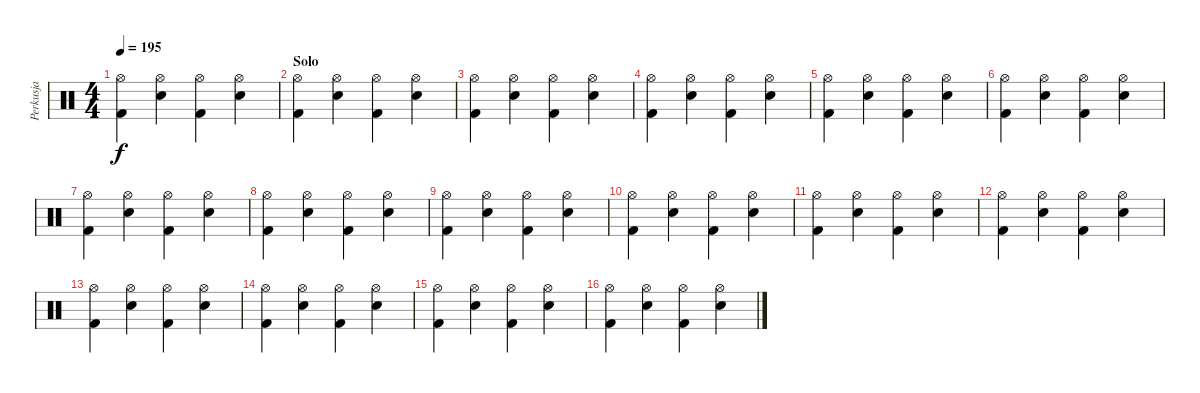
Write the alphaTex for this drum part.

\track ("Perkusja" "Perkusja") {instrument percussion}
\staff {score}
\articulation defaults
\ts (4 4)
\tempo 195
\clef neutral
\ks c
("Hi-Hat (open)" "Kick (hit) 2").4{dy f} ("Hi-Hat (open)" "Snare (hit) 2").4 ("Hi-Hat (open)" "Kick (hit) 2").4 ("Hi-Hat (open)" "Snare (hit) 2").4 |
\section ("" "Solo")
("Hi-Hat (open)" "Kick (hit) 2").4 ("Hi-Hat (open)" "Snare (hit) 2").4 ("Hi-Hat (open)" "Kick (hit) 2").4 ("Hi-Hat (open)" "Snare (hit) 2").4 |
("Hi-Hat (open)" "Kick (hit) 2").4 ("Hi-Hat (open)" "Snare (hit) 2").4 ("Hi-Hat (open)" "Kick (hit) 2").4 ("Hi-Hat (open)" "Snare (hit) 2").4 |
("Hi-Hat (open)" "Kick (hit) 2").4 ("Hi-Hat (open)" "Snare (hit) 2").4 ("Hi-Hat (open)" "Kick (hit) 2").4 ("Hi-Hat (open)" "Snare (hit) 2").4 |
("Hi-Hat (open)" "Kick (hit) 2").4 ("Hi-Hat (open)" "Snare (hit) 2").4 ("Hi-Hat (open)" "Kick (hit) 2").4 ("Hi-Hat (open)" "Snare (hit) 2").4 |
("Hi-Hat (open)" "Kick (hit) 2").4 ("Hi-Hat (open)" "Snare (hit) 2").4 ("Hi-Hat (open)" "Kick (hit) 2").4 ("Hi-Hat (open)" "Snare (hit) 2").4 |
("Hi-Hat (open)" "Kick (hit) 2").4 ("Hi-Hat (open)" "Snare (hit) 2").4 ("Hi-Hat (open)" "Kick (hit) 2").4 ("Hi-Hat (open)" "Snare (hit) 2").4 |
("Hi-Hat (open)" "Kick (hit) 2").4 ("Hi-Hat (open)" "Snare (hit) 2").4 ("Hi-Hat (open)" "Kick (hit) 2").4 ("Hi-Hat (open)" "Snare (hit) 2").4 |
("Hi-Hat (open)" "Kick (hit) 2").4 ("Hi-Hat (open)" "Snare (hit) 2").4 ("Hi-Hat (open)" "Kick (hit) 2").4 ("Hi-Hat (open)" "Snare (hit) 2").4 |
("Hi-Hat (open)" "Kick (hit) 2").4 ("Hi-Hat (open)" "Snare (hit) 2").4 ("Hi-Hat (open)" "Kick (hit) 2").4 ("Hi-Hat (open)" "Snare (hit) 2").4 |
("Hi-Hat (open)" "Kick (hit) 2").4 ("Hi-Hat (open)" "Snare (hit) 2").4 ("Hi-Hat (open)" "Kick (hit) 2").4 ("Hi-Hat (open)" "Snare (hit) 2").4 |
("Hi-Hat (open)" "Kick (hit) 2").4 ("Hi-Hat (open)" "Snare (hit) 2").4 ("Hi-Hat (open)" "Kick (hit) 2").4 ("Hi-Hat (open)" "Snare (hit) 2").4 |
("Hi-Hat (open)" "Kick (hit) 2").4 ("Hi-Hat (open)" "Snare (hit) 2").4 ("Hi-Hat (open)" "Kick (hit) 2").4 ("Hi-Hat (open)" "Snare (hit) 2").4 |
("Hi-Hat (open)" "Kick (hit) 2").4 ("Hi-Hat (open)" "Snare (hit) 2").4 ("Hi-Hat (open)" "Kick (hit) 2").4 ("Hi-Hat (open)" "Snare (hit) 2").4 |
("Hi-Hat (open)" "Kick (hit) 2").4 ("Hi-Hat (open)" "Snare (hit) 2").4 ("Hi-Hat (open)" "Kick (hit) 2").4 ("Hi-Hat (open)" "Snare (hit) 2").4 |
("Hi-Hat (open)" "Kick (hit) 2").4 ("Hi-Hat (open)" "Snare (hit) 2").4 ("Hi-Hat (open)" "Kick (hit) 2").4 ("Hi-Hat (open)" "Snare (hit) 2").4
